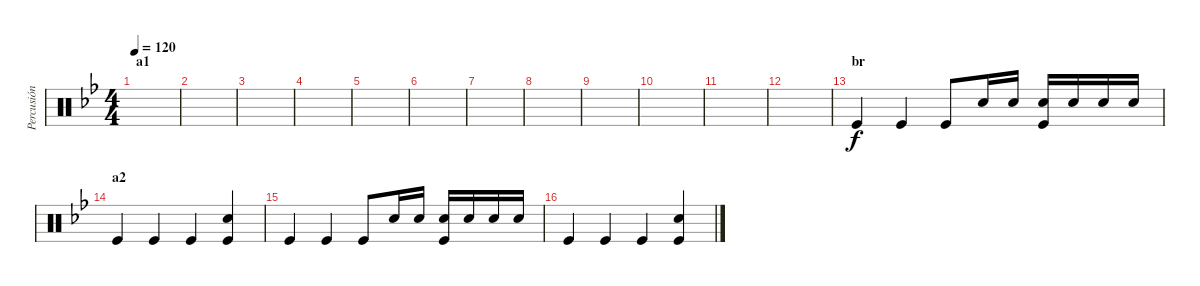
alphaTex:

\track ("Percusión" "Percusión") {instrument percussion}
\staff {score}
\articulation defaults
\ts (4 4)
\section ("" "a1")
\tempo 120
\clef neutral
\ks bb
|
|
|
|
|
|
|
|
|
|
|
|
\section ("" "br")
"Kick (hit)".4 "Kick (hit)".4 "Kick (hit)".8 "Electric Snare (hit)".16 "Electric Snare (hit)".16 ("Electric Snare (hit)" "Kick (hit)").16 "Electric Snare (hit)".16 "Electric Snare (hit)".16 "Electric Snare (hit)".16 |
\section ("" "a2")
"Kick (hit)".4 "Kick (hit)".4 "Kick (hit)".4 ("Electric Snare (hit)" "Kick (hit)").4 |
"Kick (hit)".4 "Kick (hit)".4 "Kick (hit)".8 "Electric Snare (hit)".16 "Electric Snare (hit)".16 ("Electric Snare (hit)" "Kick (hit)").16 "Electric Snare (hit)".16 "Electric Snare (hit)".16 "Electric Snare (hit)".16 |
"Kick (hit)".4 "Kick (hit)".4 "Kick (hit)".4 ("Electric Snare (hit)" "Kick (hit)").4
